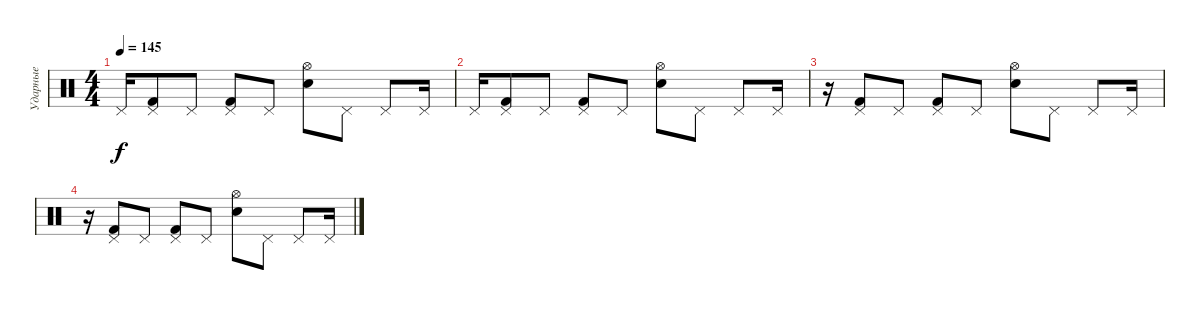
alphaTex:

\track ("Ударные" "Ударные") {instrument percussion}
\staff {score}
\articulation defaults
\ts (4 4)
\tempo 145
\clef neutral
\ks c "Pedal Hi-Hat (hit)".16{dy f}
("Pedal Hi-Hat (hit)" "Kick (hit) 2").8 "Pedal Hi-Hat (hit)".8 ("Pedal Hi-Hat (hit)" "Kick (hit) 2").8 "Pedal Hi-Hat (hit)".8 ("Hi-Hat (open)" "Electric Snare (hit)").8 "Pedal Hi-Hat (hit)".8 "Pedal Hi-Hat (hit)".8 "Pedal Hi-Hat (hit)".16 |
"Pedal Hi-Hat (hit)".16 ("Pedal Hi-Hat (hit)" "Kick (hit) 2").8 "Pedal Hi-Hat (hit)".8 ("Pedal Hi-Hat (hit)" "Kick (hit) 2").8 "Pedal Hi-Hat (hit)".8 ("Hi-Hat (open)" "Electric Snare (hit)").8 "Pedal Hi-Hat (hit)".8 "Pedal Hi-Hat (hit)".8 "Pedal Hi-Hat (hit)".16 |
r.16 ("Pedal Hi-Hat (hit)" "Kick (hit) 2").8 "Pedal Hi-Hat (hit)".8 ("Pedal Hi-Hat (hit)" "Kick (hit) 2").8 "Pedal Hi-Hat (hit)".8 ("Hi-Hat (open)" "Electric Snare (hit)").8 "Pedal Hi-Hat (hit)".8 "Pedal Hi-Hat (hit)".8 "Pedal Hi-Hat (hit)".16 |
r.16 ("Pedal Hi-Hat (hit)" "Kick (hit) 2").8 "Pedal Hi-Hat (hit)".8 ("Pedal Hi-Hat (hit)" "Kick (hit) 2").8 "Pedal Hi-Hat (hit)".8 ("Hi-Hat (open)" "Electric Snare (hit)").8 "Pedal Hi-Hat (hit)".8 "Pedal Hi-Hat (hit)".8 "Pedal Hi-Hat (hit)".16
